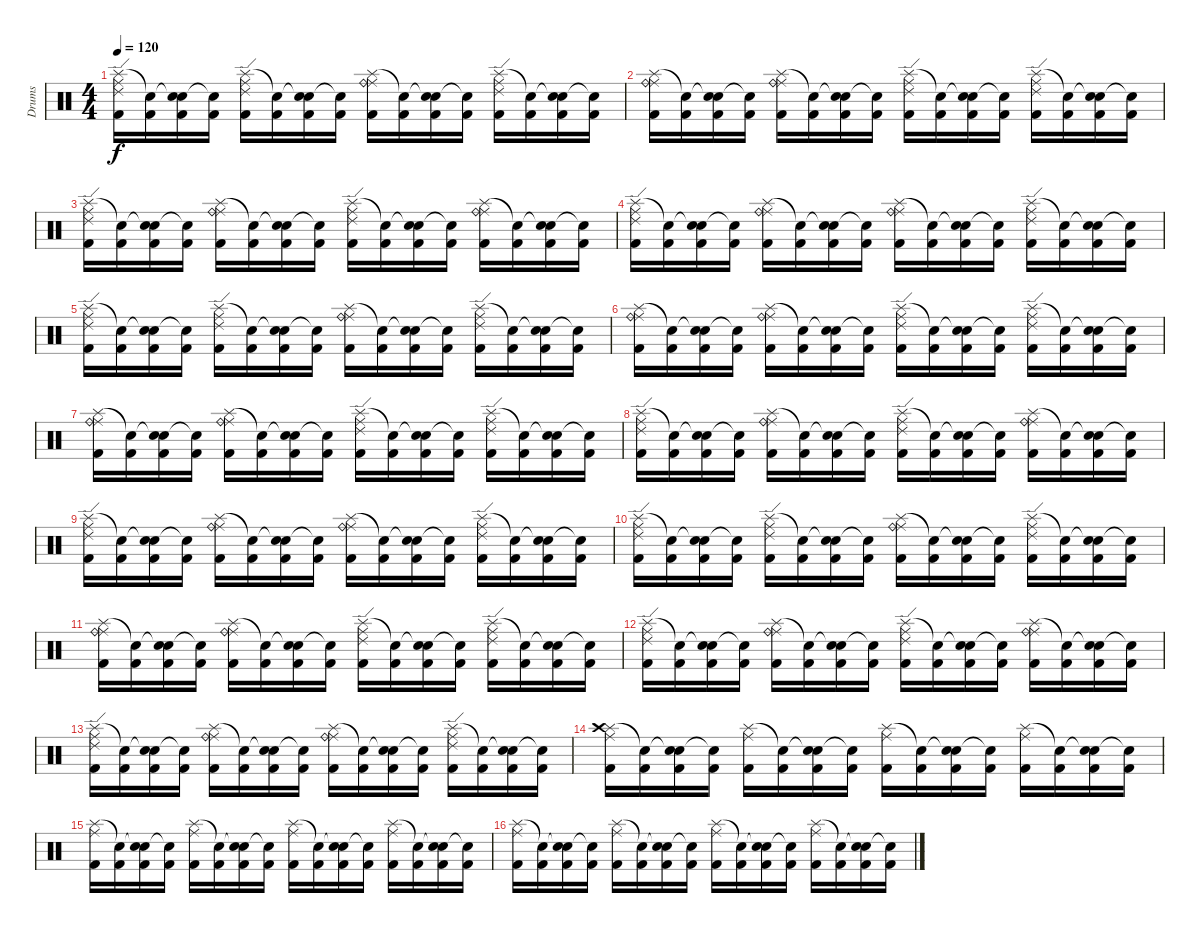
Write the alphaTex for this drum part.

\track ("Drums" "Drums") {instrument percussion}
\staff {score}
\articulation defaults
\ts (4 4)
\tempo 120
\clef neutral
\ks c
("Splash (hit)" "Ride (middle)" "Kick (hit) 2" "Ride (edge) 2").16{dy f} ("Snare (hit)"{t} "Kick (hit) 2").16 ("Snare (hit)"{t} "Electric Snare (hit)" "Kick (hit) 2").16 ("Snare (hit)"{t} "Kick (hit) 2").16 ("Splash (hit)" "Ride (middle)" "Kick (hit) 2" "Ride (edge) 2").16 ("Snare (hit)"{t} "Kick (hit) 2").16 ("Snare (hit)"{t} "Electric Snare (hit)" "Kick (hit) 2").16 ("Snare (hit)"{t} "Kick (hit) 2").16 ("Splash (hit)" "Ride (middle)" "Kick (hit) 2" "Ride (bell)").16 ("Snare (hit)"{t} "Kick (hit) 2").16 ("Snare (hit)"{t} "Electric Snare (hit)" "Kick (hit) 2").16 ("Snare (hit)"{t} "Kick (hit) 2").16 ("Splash (hit)" "Ride (middle)" "Kick (hit) 2" "Ride (edge) 2").16 ("Snare (hit)"{t} "Kick (hit) 2").16 ("Snare (hit)"{t} "Electric Snare (hit)" "Kick (hit) 2").16 ("Snare (hit)"{t} "Kick (hit) 2").16 |
("Splash (hit)" "Ride (middle)" "Kick (hit) 2" "Ride (bell)").16 ("Snare (hit)"{t} "Kick (hit) 2").16 ("Snare (hit)"{t} "Electric Snare (hit)" "Kick (hit) 2").16 ("Snare (hit)"{t} "Kick (hit) 2").16 ("Splash (hit)" "Ride (middle)" "Ride (bell)" "Kick (hit) 2").16 ("Snare (hit)"{t} "Kick (hit) 2").16 ("Snare (hit)"{t} "Electric Snare (hit)" "Kick (hit) 2").16 ("Snare (hit)"{t} "Kick (hit) 2").16 ("Splash (hit)" "Ride (middle)" "Kick (hit) 2" "Ride (edge) 2").16 ("Snare (hit)"{t} "Kick (hit) 2").16 ("Snare (hit)"{t} "Electric Snare (hit)" "Kick (hit) 2").16 ("Snare (hit)"{t} "Kick (hit) 2").16 ("Splash (hit)" "Ride (middle)" "Kick (hit) 2" "Ride (edge) 2").16 ("Snare (hit)"{t} "Kick (hit) 2").16 ("Snare (hit)"{t} "Electric Snare (hit)" "Kick (hit) 2").16 ("Snare (hit)"{t} "Kick (hit) 2").16 |
("Splash (hit)" "Ride (middle)" "Kick (hit) 2" "Ride (edge) 2").16 ("Snare (hit)"{t} "Kick (hit) 2").16 ("Snare (hit)"{t} "Electric Snare (hit)" "Kick (hit) 2").16 ("Snare (hit)"{t} "Kick (hit) 2").16 ("Splash (hit)" "Ride (middle)" "Kick (hit) 2" "Ride (bell)").16 ("Snare (hit)"{t} "Kick (hit) 2").16 ("Snare (hit)"{t} "Electric Snare (hit)" "Kick (hit) 2").16 ("Snare (hit)"{t} "Kick (hit) 2").16 ("Splash (hit)" "Ride (middle)" "Kick (hit) 2" "Ride (edge) 2").16 ("Snare (hit)"{t} "Kick (hit) 2").16 ("Snare (hit)"{t} "Electric Snare (hit)" "Kick (hit) 2").16 ("Snare (hit)"{t} "Kick (hit) 2").16 ("Splash (hit)" "Ride (middle)" "Kick (hit) 2" "Ride (bell)").16 ("Snare (hit)"{t} "Kick (hit) 2").16 ("Snare (hit)"{t} "Electric Snare (hit)" "Kick (hit) 2").16 ("Snare (hit)"{t} "Kick (hit) 2").16 |
("Splash (hit)" "Ride (middle)" "Kick (hit) 2" "Ride (edge) 2").16 ("Snare (hit)"{t} "Kick (hit) 2").16 ("Snare (hit)"{t} "Electric Snare (hit)" "Kick (hit) 2").16 ("Snare (hit)"{t} "Kick (hit) 2").16 ("Splash (hit)" "Ride (middle)" "Kick (hit) 2" "Ride (bell)").16 ("Snare (hit)"{t} "Kick (hit) 2").16 ("Snare (hit)"{t} "Electric Snare (hit)" "Kick (hit) 2").16 ("Snare (hit)"{t} "Kick (hit) 2").16 ("Splash (hit)" "Ride (middle)" "Kick (hit) 2" "Ride (bell)").16 ("Snare (hit)"{t} "Kick (hit) 2").16 ("Snare (hit)"{t} "Electric Snare (hit)" "Kick (hit) 2").16 ("Snare (hit)"{t} "Kick (hit) 2").16 ("Splash (hit)" "Ride (middle)" "Kick (hit) 2" "Ride (edge) 2").16 ("Snare (hit)"{t} "Kick (hit) 2").16 ("Snare (hit)"{t} "Electric Snare (hit)" "Kick (hit) 2").16 ("Snare (hit)"{t} "Kick (hit) 2").16 |
("Splash (hit)" "Ride (middle)" "Kick (hit) 2" "Ride (edge) 2").16 ("Snare (hit)"{t} "Kick (hit) 2").16 ("Snare (hit)"{t} "Electric Snare (hit)" "Kick (hit) 2").16 ("Snare (hit)"{t} "Kick (hit) 2").16 ("Splash (hit)" "Ride (middle)" "Kick (hit) 2" "Ride (edge) 2").16 ("Snare (hit)"{t} "Kick (hit) 2").16 ("Snare (hit)"{t} "Electric Snare (hit)" "Kick (hit) 2").16 ("Snare (hit)"{t} "Kick (hit) 2").16 ("Splash (hit)" "Ride (middle)" "Kick (hit) 2" "Ride (bell)").16 ("Snare (hit)"{t} "Kick (hit) 2").16 ("Snare (hit)"{t} "Electric Snare (hit)" "Kick (hit) 2").16 ("Snare (hit)"{t} "Kick (hit) 2").16 ("Splash (hit)" "Ride (middle)" "Kick (hit) 2" "Ride (edge) 2").16 ("Snare (hit)"{t} "Kick (hit) 2").16 ("Snare (hit)"{t} "Electric Snare (hit)" "Kick (hit) 2").16 ("Snare (hit)"{t} "Kick (hit) 2").16 |
("Splash (hit)" "Ride (middle)" "Kick (hit) 2" "Ride (bell)").16 ("Snare (hit)"{t} "Kick (hit) 2").16 ("Snare (hit)"{t} "Electric Snare (hit)" "Kick (hit) 2").16 ("Snare (hit)"{t} "Kick (hit) 2").16 ("Splash (hit)" "Ride (middle)" "Ride (bell)" "Kick (hit) 2").16 ("Snare (hit)"{t} "Kick (hit) 2").16 ("Snare (hit)"{t} "Electric Snare (hit)" "Kick (hit) 2").16 ("Snare (hit)"{t} "Kick (hit) 2").16 ("Splash (hit)" "Ride (middle)" "Kick (hit) 2" "Ride (edge) 2").16 ("Snare (hit)"{t} "Kick (hit) 2").16 ("Snare (hit)"{t} "Electric Snare (hit)" "Kick (hit) 2").16 ("Snare (hit)"{t} "Kick (hit) 2").16 ("Splash (hit)" "Ride (middle)" "Kick (hit) 2" "Ride (edge) 2").16 ("Snare (hit)"{t} "Kick (hit) 2").16 ("Snare (hit)"{t} "Electric Snare (hit)" "Kick (hit) 2").16 ("Snare (hit)"{t} "Kick (hit) 2").16 |
("Splash (hit)" "Ride (middle)" "Kick (hit) 2" "Ride (bell)").16 ("Snare (hit)"{t} "Kick (hit) 2").16 ("Snare (hit)"{t} "Electric Snare (hit)" "Kick (hit) 2").16 ("Snare (hit)"{t} "Kick (hit) 2").16 ("Splash (hit)" "Ride (middle)" "Ride (bell)" "Kick (hit) 2").16 ("Snare (hit)"{t} "Kick (hit) 2").16 ("Snare (hit)"{t} "Electric Snare (hit)" "Kick (hit) 2").16 ("Snare (hit)"{t} "Kick (hit) 2").16 ("Splash (hit)" "Ride (middle)" "Kick (hit) 2" "Ride (edge) 2").16 ("Snare (hit)"{t} "Kick (hit) 2").16 ("Snare (hit)"{t} "Electric Snare (hit)" "Kick (hit) 2").16 ("Snare (hit)"{t} "Kick (hit) 2").16 ("Splash (hit)" "Ride (middle)" "Kick (hit) 2" "Ride (edge) 2").16 ("Snare (hit)"{t} "Kick (hit) 2").16 ("Snare (hit)"{t} "Electric Snare (hit)" "Kick (hit) 2").16 ("Snare (hit)"{t} "Kick (hit) 2").16 |
("Splash (hit)" "Ride (middle)" "Kick (hit) 2" "Ride (edge) 2").16 ("Snare (hit)"{t} "Kick (hit) 2").16 ("Snare (hit)"{t} "Electric Snare (hit)" "Kick (hit) 2").16 ("Snare (hit)"{t} "Kick (hit) 2").16 ("Splash (hit)" "Ride (middle)" "Kick (hit) 2" "Ride (bell)").16 ("Snare (hit)"{t} "Kick (hit) 2").16 ("Snare (hit)"{t} "Electric Snare (hit)" "Kick (hit) 2").16 ("Snare (hit)"{t} "Kick (hit) 2").16 ("Splash (hit)" "Ride (middle)" "Kick (hit) 2" "Ride (edge) 2").16 ("Snare (hit)"{t} "Kick (hit) 2").16 ("Snare (hit)"{t} "Electric Snare (hit)" "Kick (hit) 2").16 ("Snare (hit)"{t} "Kick (hit) 2").16 ("Splash (hit)" "Ride (middle)" "Kick (hit) 2" "Ride (bell)").16 ("Snare (hit)"{t} "Kick (hit) 2").16 ("Snare (hit)"{t} "Electric Snare (hit)" "Kick (hit) 2").16 ("Snare (hit)"{t} "Kick (hit) 2").16 |
("Splash (hit)" "Ride (middle)" "Kick (hit) 2" "Ride (edge) 2").16 ("Snare (hit)"{t} "Kick (hit) 2").16 ("Snare (hit)"{t} "Electric Snare (hit)" "Kick (hit) 2").16 ("Snare (hit)"{t} "Kick (hit) 2").16 ("Splash (hit)" "Ride (middle)" "Kick (hit) 2" "Ride (bell)").16 ("Snare (hit)"{t} "Kick (hit) 2").16 ("Snare (hit)"{t} "Electric Snare (hit)" "Kick (hit) 2").16 ("Snare (hit)"{t} "Kick (hit) 2").16 ("Splash (hit)" "Ride (middle)" "Kick (hit) 2" "Ride (bell)").16 ("Snare (hit)"{t} "Kick (hit) 2").16 ("Snare (hit)"{t} "Electric Snare (hit)" "Kick (hit) 2").16 ("Snare (hit)"{t} "Kick (hit) 2").16 ("Splash (hit)" "Ride (middle)" "Kick (hit) 2" "Ride (edge) 2").16 ("Snare (hit)"{t} "Kick (hit) 2").16 ("Snare (hit)"{t} "Electric Snare (hit)" "Kick (hit) 2").16 ("Snare (hit)"{t} "Kick (hit) 2").16 |
("Splash (hit)" "Ride (middle)" "Kick (hit) 2" "Ride (edge) 2").16 ("Snare (hit)"{t} "Kick (hit) 2").16 ("Snare (hit)"{t} "Electric Snare (hit)" "Kick (hit) 2").16 ("Snare (hit)"{t} "Kick (hit) 2").16 ("Splash (hit)" "Ride (middle)" "Kick (hit) 2" "Ride (edge) 2").16 ("Snare (hit)"{t} "Kick (hit) 2").16 ("Snare (hit)"{t} "Electric Snare (hit)" "Kick (hit) 2").16 ("Snare (hit)"{t} "Kick (hit) 2").16 ("Splash (hit)" "Ride (middle)" "Kick (hit) 2" "Ride (bell)").16 ("Snare (hit)"{t} "Kick (hit) 2").16 ("Snare (hit)"{t} "Electric Snare (hit)" "Kick (hit) 2").16 ("Snare (hit)"{t} "Kick (hit) 2").16 ("Splash (hit)" "Ride (middle)" "Kick (hit) 2" "Ride (edge) 2").16 ("Snare (hit)"{t} "Kick (hit) 2").16 ("Snare (hit)"{t} "Electric Snare (hit)" "Kick (hit) 2").16 ("Snare (hit)"{t} "Kick (hit) 2").16 |
("Splash (hit)" "Ride (middle)" "Kick (hit) 2" "Ride (bell)").16 ("Snare (hit)"{t} "Kick (hit) 2").16 ("Snare (hit)"{t} "Electric Snare (hit)" "Kick (hit) 2").16 ("Snare (hit)"{t} "Kick (hit) 2").16 ("Splash (hit)" "Ride (middle)" "Ride (bell)" "Kick (hit) 2").16 ("Snare (hit)"{t} "Kick (hit) 2").16 ("Snare (hit)"{t} "Electric Snare (hit)" "Kick (hit) 2").16 ("Snare (hit)"{t} "Kick (hit) 2").16 ("Splash (hit)" "Ride (middle)" "Kick (hit) 2" "Ride (edge) 2").16 ("Snare (hit)"{t} "Kick (hit) 2").16 ("Snare (hit)"{t} "Electric Snare (hit)" "Kick (hit) 2").16 ("Snare (hit)"{t} "Kick (hit) 2").16 ("Splash (hit)" "Ride (middle)" "Kick (hit) 2" "Ride (edge) 2").16 ("Snare (hit)"{t} "Kick (hit) 2").16 ("Snare (hit)"{t} "Electric Snare (hit)" "Kick (hit) 2").16 ("Snare (hit)"{t} "Kick (hit) 2").16 |
("Splash (hit)" "Ride (middle)" "Kick (hit) 2" "Ride (edge) 2").16 ("Snare (hit)"{t} "Kick (hit) 2").16 ("Snare (hit)"{t} "Electric Snare (hit)" "Kick (hit) 2").16 ("Snare (hit)"{t} "Kick (hit) 2").16 ("Splash (hit)" "Ride (middle)" "Kick (hit) 2" "Ride (bell)").16 ("Snare (hit)"{t} "Kick (hit) 2").16 ("Snare (hit)"{t} "Electric Snare (hit)" "Kick (hit) 2").16 ("Snare (hit)"{t} "Kick (hit) 2").16 ("Splash (hit)" "Ride (middle)" "Kick (hit) 2" "Ride (edge) 2").16 ("Snare (hit)"{t} "Kick (hit) 2").16 ("Snare (hit)"{t} "Electric Snare (hit)" "Kick (hit) 2").16 ("Snare (hit)"{t} "Kick (hit) 2").16 ("Splash (hit)" "Ride (middle)" "Kick (hit) 2" "Ride (bell)").16 ("Snare (hit)"{t} "Kick (hit) 2").16 ("Snare (hit)"{t} "Electric Snare (hit)" "Kick (hit) 2").16 ("Snare (hit)"{t} "Kick (hit) 2").16 |
("Splash (hit)" "Ride (middle)" "Kick (hit) 2" "Ride (edge) 2").16 ("Snare (hit)"{t} "Kick (hit) 2").16 ("Snare (hit)"{t} "Electric Snare (hit)" "Kick (hit) 2").16 ("Snare (hit)"{t} "Kick (hit) 2").16 ("Splash (hit)" "Ride (middle)" "Kick (hit) 2" "Ride (bell)").16 ("Snare (hit)"{t} "Kick (hit) 2").16 ("Snare (hit)"{t} "Electric Snare (hit)" "Kick (hit) 2").16 ("Snare (hit)"{t} "Kick (hit) 2").16 ("Splash (hit)" "Ride (middle)" "Kick (hit) 2" "Ride (bell)").16 ("Snare (hit)"{t} "Kick (hit) 2").16 ("Snare (hit)"{t} "Electric Snare (hit)" "Kick (hit) 2").16 ("Snare (hit)"{t} "Kick (hit) 2").16 ("Splash (hit)" "Ride (middle)" "Kick (hit) 2" "Ride (edge) 2").16 ("Snare (hit)"{t} "Kick (hit) 2").16 ("Snare (hit)"{t} "Electric Snare (hit)" "Kick (hit) 2").16 ("Snare (hit)"{t} "Kick (hit) 2").16 |
("Splash (hit)" "Crash high (hit)" "Kick (hit) 2" "Ride (middle)").16 ("Snare (hit)"{t} "Kick (hit) 2").16 ("Snare (hit)"{t} "Electric Snare (hit)" "Kick (hit) 2").16 ("Snare (hit)"{t} "Kick (hit) 2").16 ("Splash (hit)" "Kick (hit) 2" "Ride (middle)").16 ("Snare (hit)"{t} "Kick (hit) 2").16 ("Snare (hit)"{t} "Electric Snare (hit)" "Kick (hit) 2").16 ("Snare (hit)"{t} "Kick (hit) 2").16 ("Splash (hit)" "Ride (middle)" "Kick (hit) 2").16 ("Snare (hit)"{t} "Kick (hit) 2").16 ("Snare (hit)"{t} "Electric Snare (hit)" "Kick (hit) 2").16 ("Snare (hit)"{t} "Kick (hit) 2").16 ("Splash (hit)" "Ride (middle)" "Kick (hit) 2").16 ("Snare (hit)"{t} "Kick (hit) 2").16 ("Snare (hit)"{t} "Electric Snare (hit)" "Kick (hit) 2").16 ("Snare (hit)"{t} "Kick (hit) 2").16 |
("Splash (hit)" "Ride (middle)" "Kick (hit) 2").16 ("Snare (hit)"{t} "Kick (hit) 2").16 ("Snare (hit)"{t} "Electric Snare (hit)" "Kick (hit) 2").16 ("Snare (hit)"{t} "Kick (hit) 2").16 ("Splash (hit)" "Ride (middle)" "Kick (hit) 2").16 ("Snare (hit)"{t} "Kick (hit) 2").16 ("Snare (hit)"{t} "Electric Snare (hit)" "Kick (hit) 2").16 ("Snare (hit)"{t} "Kick (hit) 2").16 ("Splash (hit)" "Ride (middle)" "Kick (hit) 2").16 ("Snare (hit)"{t} "Kick (hit) 2").16 ("Snare (hit)"{t} "Electric Snare (hit)" "Kick (hit) 2").16 ("Snare (hit)"{t} "Kick (hit) 2").16 ("Splash (hit)" "Ride (middle)" "Kick (hit) 2").16 ("Snare (hit)"{t} "Kick (hit) 2").16 ("Snare (hit)"{t} "Electric Snare (hit)" "Kick (hit) 2").16 ("Snare (hit)"{t} "Kick (hit) 2").16 |
("Splash (hit)" "Ride (middle)" "Kick (hit) 2").16 ("Snare (hit)"{t} "Kick (hit) 2").16 ("Snare (hit)"{t} "Electric Snare (hit)" "Kick (hit) 2").16 ("Snare (hit)"{t} "Kick (hit) 2").16 ("Splash (hit)" "Ride (middle)" "Kick (hit) 2").16 ("Snare (hit)"{t} "Kick (hit) 2").16 ("Snare (hit)"{t} "Electric Snare (hit)" "Kick (hit) 2").16 ("Snare (hit)"{t} "Kick (hit) 2").16 ("Splash (hit)" "Ride (middle)" "Kick (hit) 2").16 ("Snare (hit)"{t} "Kick (hit) 2").16 ("Snare (hit)"{t} "Electric Snare (hit)" "Kick (hit) 2").16 ("Snare (hit)"{t} "Kick (hit) 2").16 ("Splash (hit)" "Ride (middle)" "Kick (hit) 2").16 ("Snare (hit)"{t} "Kick (hit) 2").16 ("Snare (hit)"{t} "Electric Snare (hit)" "Kick (hit) 2").16 ("Snare (hit)"{t} "Kick (hit) 2").16
